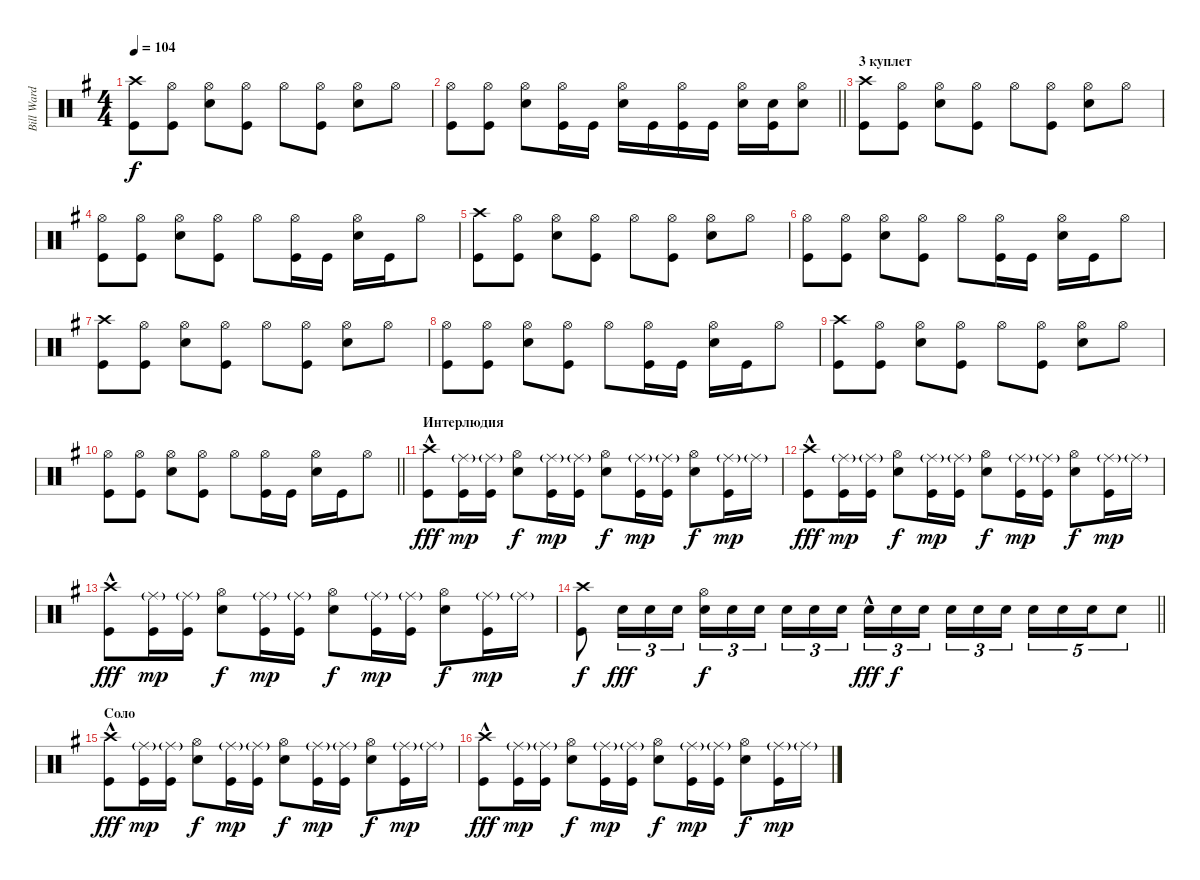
\track ("Bill Ward" "Bill Ward") {instrument percussion}
\staff {score}
\articulation defaults
\ts (4 4)
\tempo 104
\clef neutral
\ks g
("Crash high (hit)" "Kick (hit)").8{dy f} ("Kick (hit)" "Hi-Hat (open)").8 ("Snare (hit) 2" "Hi-Hat (open)").8 ("Kick (hit)" "Hi-Hat (open)").8 "Hi-Hat (open)".8 ("Kick (hit)" "Hi-Hat (open)").8 ("Hi-Hat (open)" "Snare (hit) 2").8 "Hi-Hat (open)".8 |
\barLineRight lightlight
("Kick (hit)" "Hi-Hat (open)").8 ("Kick (hit)" "Hi-Hat (open)").8 ("Snare (hit) 2" "Hi-Hat (open)").8 ("Kick (hit)" "Hi-Hat (open)").16 "Kick (hit)".16 ("Hi-Hat (open)" "Snare (hit) 2").16 "Kick (hit)".16 ("Kick (hit)" "Hi-Hat (open)").16 "Kick (hit)".16 ("Hi-Hat (open)" "Snare (hit) 2").16 ("Kick (hit)" "Snare (hit) 2").16 ("Hi-Hat (open)" "Snare (hit) 2").8 |
\section ("" "3 куплет")
("Crash high (hit)" "Kick (hit)").8 ("Kick (hit)" "Hi-Hat (open)").8 ("Snare (hit) 2" "Hi-Hat (open)").8 ("Kick (hit)" "Hi-Hat (open)").8 "Hi-Hat (open)".8 ("Kick (hit)" "Hi-Hat (open)").8 ("Hi-Hat (open)" "Snare (hit) 2").8 "Hi-Hat (open)".8 |
("Kick (hit)" "Hi-Hat (open)").8 ("Kick (hit)" "Hi-Hat (open)").8 ("Snare (hit) 2" "Hi-Hat (open)").8 ("Kick (hit)" "Hi-Hat (open)").8 "Hi-Hat (open)".8 ("Kick (hit)" "Hi-Hat (open)").16 "Kick (hit)".16 ("Snare (hit) 2" "Hi-Hat (open)").16 "Kick (hit)".16 "Hi-Hat (open)".8 |
("Crash high (hit)" "Kick (hit)").8 ("Kick (hit)" "Hi-Hat (open)").8 ("Snare (hit) 2" "Hi-Hat (open)").8 ("Kick (hit)" "Hi-Hat (open)").8 "Hi-Hat (open)".8 ("Kick (hit)" "Hi-Hat (open)").8 ("Hi-Hat (open)" "Snare (hit) 2").8 "Hi-Hat (open)".8 |
("Kick (hit)" "Hi-Hat (open)").8 ("Kick (hit)" "Hi-Hat (open)").8 ("Snare (hit) 2" "Hi-Hat (open)").8 ("Kick (hit)" "Hi-Hat (open)").8 "Hi-Hat (open)".8 ("Kick (hit)" "Hi-Hat (open)").16 "Kick (hit)".16 ("Snare (hit) 2" "Hi-Hat (open)").16 "Kick (hit)".16 "Hi-Hat (open)".8 |
("Crash high (hit)" "Kick (hit)").8 ("Kick (hit)" "Hi-Hat (open)").8 ("Snare (hit) 2" "Hi-Hat (open)").8 ("Kick (hit)" "Hi-Hat (open)").8 "Hi-Hat (open)".8 ("Kick (hit)" "Hi-Hat (open)").8 ("Hi-Hat (open)" "Snare (hit) 2").8 "Hi-Hat (open)".8 |
("Kick (hit)" "Hi-Hat (open)").8 ("Kick (hit)" "Hi-Hat (open)").8 ("Snare (hit) 2" "Hi-Hat (open)").8 ("Kick (hit)" "Hi-Hat (open)").8 "Hi-Hat (open)".8 ("Kick (hit)" "Hi-Hat (open)").16 "Kick (hit)".16 ("Snare (hit) 2" "Hi-Hat (open)").16 "Kick (hit)".16 "Hi-Hat (open)".8 |
("Crash high (hit)" "Kick (hit)").8 ("Kick (hit)" "Hi-Hat (open)").8 ("Snare (hit) 2" "Hi-Hat (open)").8 ("Kick (hit)" "Hi-Hat (open)").8 "Hi-Hat (open)".8 ("Kick (hit)" "Hi-Hat (open)").8 ("Hi-Hat (open)" "Snare (hit) 2").8 "Hi-Hat (open)".8 |
\barLineRight lightlight
("Kick (hit)" "Hi-Hat (open)").8 ("Kick (hit)" "Hi-Hat (open)").8 ("Snare (hit) 2" "Hi-Hat (open)").8 ("Kick (hit)" "Hi-Hat (open)").8 "Hi-Hat (open)".8 ("Kick (hit)" "Hi-Hat (open)").16 "Kick (hit)".16 ("Snare (hit) 2" "Hi-Hat (open)").16 "Kick (hit)".16 "Hi-Hat (open)".8 |
\section ("" "Интерлюдия")
("Kick (hit)" "Crash high (hit)"{hac}).8{dy fff} ("Kick (hit)" "Ride (middle)"{g}).16{dy mp} ("Kick (hit)" "Ride (middle)"{g}).16 ("Snare (hit) 2" "Hi-Hat (open)").8{dy f} ("Kick (hit)" "Ride (middle)"{g}).16{dy mp} ("Kick (hit)" "Ride (middle)"{g}).16 ("Snare (hit) 2" "Hi-Hat (open)").8{dy f} ("Kick (hit)" "Ride (middle)"{g}).16{dy mp} ("Kick (hit)" "Ride (middle)"{g}).16 ("Snare (hit) 2" "Hi-Hat (open)").8{dy f} ("Kick (hit)" "Ride (middle)"{g}).16{dy mp} "Ride (middle)"{g}.16 |
("Kick (hit)" "Crash high (hit)"{hac}).8{dy fff} ("Kick (hit)" "Ride (middle)"{g}).16{dy mp} ("Kick (hit)" "Ride (middle)"{g}).16 ("Snare (hit) 2" "Hi-Hat (open)").8{dy f} ("Kick (hit)" "Ride (middle)"{g}).16{dy mp} ("Kick (hit)" "Ride (middle)"{g}).16 ("Snare (hit) 2" "Hi-Hat (open)").8{dy f} ("Kick (hit)" "Ride (middle)"{g}).16{dy mp} ("Kick (hit)" "Ride (middle)"{g}).16 ("Snare (hit) 2" "Hi-Hat (open)").8{dy f} ("Kick (hit)" "Ride (middle)"{g}).16{dy mp} "Ride (middle)"{g}.16 |
("Kick (hit)" "Crash high (hit)"{hac}).8{dy fff} ("Kick (hit)" "Ride (middle)"{g}).16{dy mp} ("Kick (hit)" "Ride (middle)"{g}).16 ("Snare (hit) 2" "Hi-Hat (open)").8{dy f} ("Kick (hit)" "Ride (middle)"{g}).16{dy mp} ("Kick (hit)" "Ride (middle)"{g}).16 ("Snare (hit) 2" "Hi-Hat (open)").8{dy f} ("Kick (hit)" "Ride (middle)"{g}).16{dy mp} ("Kick (hit)" "Ride (middle)"{g}).16 ("Snare (hit) 2" "Hi-Hat (open)").8{dy f} ("Kick (hit)" "Ride (middle)"{g}).16{dy mp} "Ride (middle)"{g}.16 |
\barLineRight lightlight
("Crash high (hit)" "Kick (hit)").8{dy f} "Snare (hit) 2".16{tu (3 2) dy fff} "Snare (hit) 2".16{tu (3 2)} "Snare (hit) 2".16{tu (3 2)} ("Snare (hit) 2" "Hi-Hat (open)").16{tu (3 2) dy f} "Snare (hit) 2".16{tu (3 2)} "Snare (hit) 2".16{tu (3 2) beam splitsecondary} "Snare (hit) 2".16{tu (3 2)} "Snare (hit) 2".16{tu (3 2)} "Snare (hit) 2".16{tu (3 2)} "Snare (hit) 2"{hac}.16{tu (3 2) dy fff} "Snare (hit) 2".16{tu (3 2) dy f} "Snare (hit) 2".16{tu (3 2) beam splitsecondary} "Snare (hit) 2".16{tu (3 2)} "Snare (hit) 2".16{tu (3 2)} "Snare (hit) 2".16{tu (3 2)} "Snare (hit) 2".16{tu (5 4)} "Snare (hit) 2".16{tu (5 4)} "Snare (hit) 2".16{tu (5 4)} "Snare (hit) 2".8{tu (5 4)} |
\section ("" "Соло")
("Kick (hit)" "Crash high (hit)"{hac}).8{dy fff} ("Kick (hit)" "Ride (middle)"{g}).16{dy mp} ("Kick (hit)" "Ride (middle)"{g}).16 ("Snare (hit) 2" "Hi-Hat (open)").8{dy f} ("Kick (hit)" "Ride (middle)"{g}).16{dy mp} ("Kick (hit)" "Ride (middle)"{g}).16 ("Snare (hit) 2" "Hi-Hat (open)").8{dy f} ("Kick (hit)" "Ride (middle)"{g}).16{dy mp} ("Kick (hit)" "Ride (middle)"{g}).16 ("Snare (hit) 2" "Hi-Hat (open)").8{dy f} ("Kick (hit)" "Ride (middle)"{g}).16{dy mp} "Ride (middle)"{g}.16 |
("Kick (hit)" "Crash high (hit)"{hac}).8{dy fff} ("Kick (hit)" "Ride (middle)"{g}).16{dy mp} ("Kick (hit)" "Ride (middle)"{g}).16 ("Snare (hit) 2" "Hi-Hat (open)").8{dy f} ("Kick (hit)" "Ride (middle)"{g}).16{dy mp} ("Kick (hit)" "Ride (middle)"{g}).16 ("Snare (hit) 2" "Hi-Hat (open)").8{dy f} ("Kick (hit)" "Ride (middle)"{g}).16{dy mp} ("Kick (hit)" "Ride (middle)"{g}).16 ("Snare (hit) 2" "Hi-Hat (open)").8{dy f} ("Kick (hit)" "Ride (middle)"{g}).16{dy mp} "Ride (middle)"{g}.16
